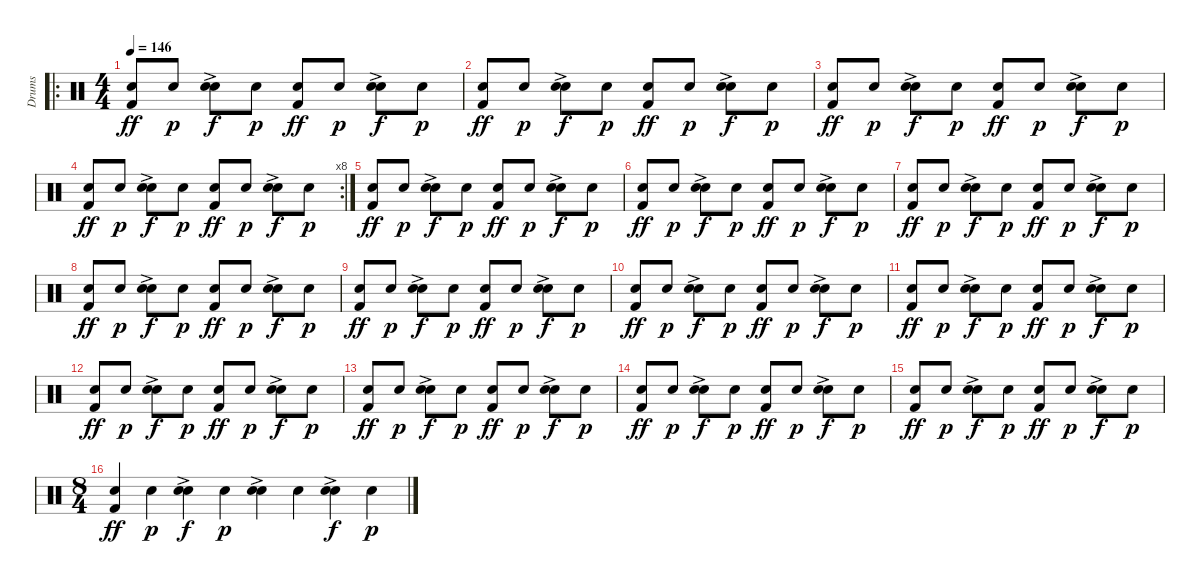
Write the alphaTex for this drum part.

\track ("Drums" "Drums") {instrument percussion}
\staff {score}
\articulation defaults
\ro
\ts (4 4)
\tempo 146
\clef neutral
\ks c
("Electric Snare (hit)" "Kick (hit) 2").8{dy ff} "Electric Snare (hit)".8{dy p} ("Electric Snare (hit)" "Electric Snare (hit)"{ac}).8{dy f} "Electric Snare (hit)".8{dy p} ("Electric Snare (hit)" "Kick (hit) 2").8{dy ff} "Electric Snare (hit)".8{dy p} ("Electric Snare (hit)" "Electric Snare (hit)"{ac}).8{dy f} "Electric Snare (hit)".8{dy p} |
("Electric Snare (hit)" "Kick (hit) 2").8{dy ff} "Electric Snare (hit)".8{dy p} ("Electric Snare (hit)" "Electric Snare (hit)"{ac}).8{dy f} "Electric Snare (hit)".8{dy p} ("Electric Snare (hit)" "Kick (hit) 2").8{dy ff} "Electric Snare (hit)".8{dy p} ("Electric Snare (hit)" "Electric Snare (hit)"{ac}).8{dy f} "Electric Snare (hit)".8{dy p} |
("Electric Snare (hit)" "Kick (hit) 2").8{dy ff} "Electric Snare (hit)".8{dy p} ("Electric Snare (hit)" "Electric Snare (hit)"{ac}).8{dy f} "Electric Snare (hit)".8{dy p} ("Electric Snare (hit)" "Kick (hit) 2").8{dy ff} "Electric Snare (hit)".8{dy p} ("Electric Snare (hit)" "Electric Snare (hit)"{ac}).8{dy f} "Electric Snare (hit)".8{dy p} |
\rc 8
("Electric Snare (hit)" "Kick (hit) 2").8{dy ff} "Electric Snare (hit)".8{dy p} ("Electric Snare (hit)" "Electric Snare (hit)"{ac}).8{dy f} "Electric Snare (hit)".8{dy p} ("Electric Snare (hit)" "Kick (hit) 2").8{dy ff} "Electric Snare (hit)".8{dy p} ("Electric Snare (hit)" "Electric Snare (hit)"{ac}).8{dy f} "Electric Snare (hit)".8{dy p} |
("Electric Snare (hit)" "Kick (hit) 2").8{dy ff} "Electric Snare (hit)".8{dy p} ("Electric Snare (hit)" "Electric Snare (hit)"{ac}).8{dy f} "Electric Snare (hit)".8{dy p} ("Electric Snare (hit)" "Kick (hit) 2").8{dy ff} "Electric Snare (hit)".8{dy p} ("Electric Snare (hit)" "Electric Snare (hit)"{ac}).8{dy f} "Electric Snare (hit)".8{dy p} |
("Electric Snare (hit)" "Kick (hit) 2").8{dy ff} "Electric Snare (hit)".8{dy p} ("Electric Snare (hit)" "Electric Snare (hit)"{ac}).8{dy f} "Electric Snare (hit)".8{dy p} ("Electric Snare (hit)" "Kick (hit) 2").8{dy ff} "Electric Snare (hit)".8{dy p} ("Electric Snare (hit)" "Electric Snare (hit)"{ac}).8{dy f} "Electric Snare (hit)".8{dy p} |
("Electric Snare (hit)" "Kick (hit) 2").8{dy ff} "Electric Snare (hit)".8{dy p} ("Electric Snare (hit)" "Electric Snare (hit)"{ac}).8{dy f} "Electric Snare (hit)".8{dy p} ("Electric Snare (hit)" "Kick (hit) 2").8{dy ff} "Electric Snare (hit)".8{dy p} ("Electric Snare (hit)" "Electric Snare (hit)"{ac}).8{dy f} "Electric Snare (hit)".8{dy p} |
("Electric Snare (hit)" "Kick (hit) 2").8{dy ff} "Electric Snare (hit)".8{dy p} ("Electric Snare (hit)" "Electric Snare (hit)"{ac}).8{dy f} "Electric Snare (hit)".8{dy p} ("Electric Snare (hit)" "Kick (hit) 2").8{dy ff} "Electric Snare (hit)".8{dy p} ("Electric Snare (hit)" "Electric Snare (hit)"{ac}).8{dy f} "Electric Snare (hit)".8{dy p} |
("Electric Snare (hit)" "Kick (hit) 2").8{dy ff} "Electric Snare (hit)".8{dy p} ("Electric Snare (hit)" "Electric Snare (hit)"{ac}).8{dy f} "Electric Snare (hit)".8{dy p} ("Electric Snare (hit)" "Kick (hit) 2").8{dy ff} "Electric Snare (hit)".8{dy p} ("Electric Snare (hit)" "Electric Snare (hit)"{ac}).8{dy f} "Electric Snare (hit)".8{dy p} |
("Electric Snare (hit)" "Kick (hit) 2").8{dy ff} "Electric Snare (hit)".8{dy p} ("Electric Snare (hit)" "Electric Snare (hit)"{ac}).8{dy f} "Electric Snare (hit)".8{dy p} ("Electric Snare (hit)" "Kick (hit) 2").8{dy ff} "Electric Snare (hit)".8{dy p} ("Electric Snare (hit)" "Electric Snare (hit)"{ac}).8{dy f} "Electric Snare (hit)".8{dy p} |
("Electric Snare (hit)" "Kick (hit) 2").8{dy ff} "Electric Snare (hit)".8{dy p} ("Electric Snare (hit)" "Electric Snare (hit)"{ac}).8{dy f} "Electric Snare (hit)".8{dy p} ("Electric Snare (hit)" "Kick (hit) 2").8{dy ff} "Electric Snare (hit)".8{dy p} ("Electric Snare (hit)" "Electric Snare (hit)"{ac}).8{dy f} "Electric Snare (hit)".8{dy p} |
("Electric Snare (hit)" "Kick (hit) 2").8{dy ff} "Electric Snare (hit)".8{dy p} ("Electric Snare (hit)" "Electric Snare (hit)"{ac}).8{dy f} "Electric Snare (hit)".8{dy p} ("Electric Snare (hit)" "Kick (hit) 2").8{dy ff} "Electric Snare (hit)".8{dy p} ("Electric Snare (hit)" "Electric Snare (hit)"{ac}).8{dy f} "Electric Snare (hit)".8{dy p} |
("Electric Snare (hit)" "Kick (hit) 2").8{dy ff} "Electric Snare (hit)".8{dy p} ("Electric Snare (hit)" "Electric Snare (hit)"{ac}).8{dy f} "Electric Snare (hit)".8{dy p} ("Electric Snare (hit)" "Kick (hit) 2").8{dy ff} "Electric Snare (hit)".8{dy p} ("Electric Snare (hit)" "Electric Snare (hit)"{ac}).8{dy f} "Electric Snare (hit)".8{dy p} |
("Electric Snare (hit)" "Kick (hit) 2").8{dy ff} "Electric Snare (hit)".8{dy p} ("Electric Snare (hit)" "Electric Snare (hit)"{ac}).8{dy f} "Electric Snare (hit)".8{dy p} ("Electric Snare (hit)" "Kick (hit) 2").8{dy ff} "Electric Snare (hit)".8{dy p} ("Electric Snare (hit)" "Electric Snare (hit)"{ac}).8{dy f} "Electric Snare (hit)".8{dy p} |
("Electric Snare (hit)" "Kick (hit) 2").8{dy ff} "Electric Snare (hit)".8{dy p} ("Electric Snare (hit)" "Electric Snare (hit)"{ac}).8{dy f} "Electric Snare (hit)".8{dy p} ("Electric Snare (hit)" "Kick (hit) 2").8{dy ff} "Electric Snare (hit)".8{dy p} ("Electric Snare (hit)" "Electric Snare (hit)"{ac}).8{dy f} "Electric Snare (hit)".8{dy p} |
\ts (8 4)
("Electric Snare (hit)" "Kick (hit) 2").4{dy ff} "Electric Snare (hit)".4{dy p} ("Electric Snare (hit)" "Electric Snare (hit)"{ac}).4{dy f} "Electric Snare (hit)".4{dy p} ("Electric Snare (hit)" "Electric Snare (hit)"{ac}).4 "Electric Snare (hit)".4 ("Electric Snare (hit)" "Electric Snare (hit)"{ac}).4{dy f} "Electric Snare (hit)".4{dy p}
